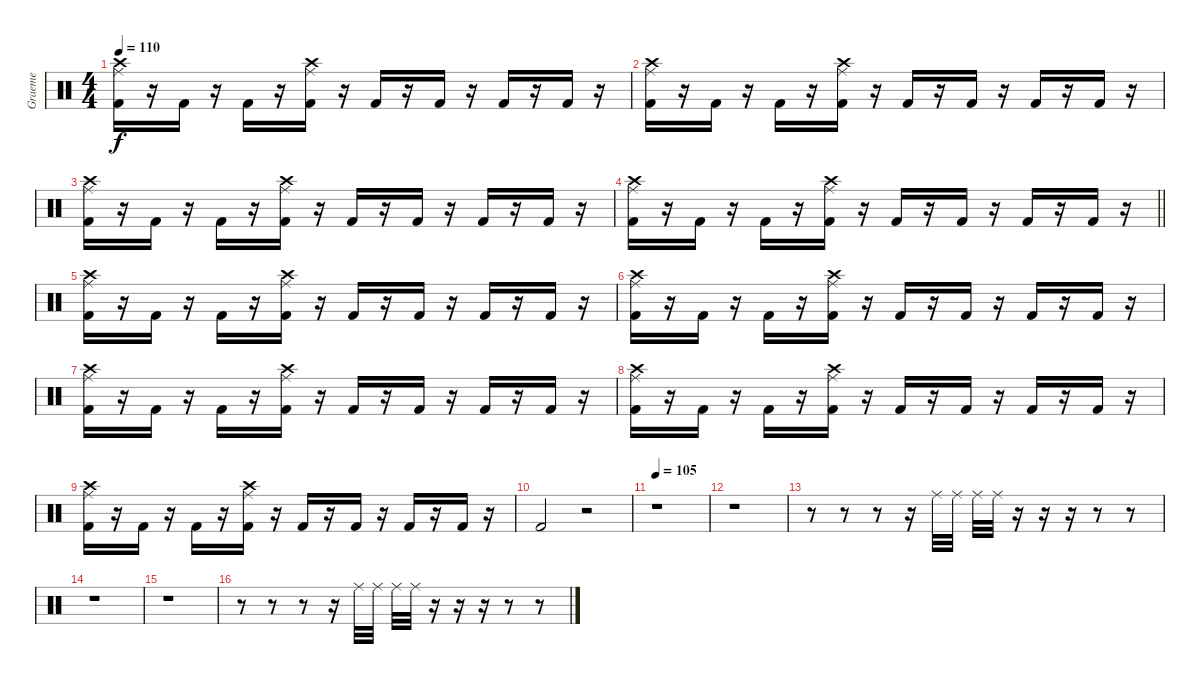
\track ("Graeme" "Graeme") {instrument percussion}
\staff {score}
\articulation defaults
\ts (4 4)
\tempo 110
\clef neutral
\ks c
("Ride (middle)" "Crash high (hit)" "Kick (hit) 2").16{dy f} r.16 "Kick (hit) 2".16 r.16 "Kick (hit) 2".16 r.16 ("Ride (middle)" "Crash high (hit)" "Kick (hit) 2").16 r.16 "Kick (hit) 2".16 r.16 "Kick (hit) 2".16 r.16 "Kick (hit) 2".16 r.16 "Kick (hit) 2".16 r.16 |
("Ride (middle)" "Crash high (hit)" "Kick (hit) 2").16 r.16 "Kick (hit) 2".16 r.16 "Kick (hit) 2".16 r.16 ("Ride (middle)" "Crash high (hit)" "Kick (hit) 2").16 r.16 "Kick (hit) 2".16 r.16 "Kick (hit) 2".16 r.16 "Kick (hit) 2".16 r.16 "Kick (hit) 2".16 r.16 |
("Ride (middle)" "Crash high (hit)" "Kick (hit) 2").16 r.16 "Kick (hit) 2".16 r.16 "Kick (hit) 2".16 r.16 ("Ride (middle)" "Crash high (hit)" "Kick (hit) 2").16 r.16 "Kick (hit) 2".16 r.16 "Kick (hit) 2".16 r.16 "Kick (hit) 2".16 r.16 "Kick (hit) 2".16 r.16 |
\barLineRight lightlight
("Ride (middle)" "Crash high (hit)" "Kick (hit) 2").16 r.16 "Kick (hit) 2".16 r.16 "Kick (hit) 2".16 r.16 ("Ride (middle)" "Crash high (hit)" "Kick (hit) 2").16 r.16 "Kick (hit) 2".16 r.16 "Kick (hit) 2".16 r.16 "Kick (hit) 2".16 r.16 "Kick (hit) 2".16 r.16 |
("Ride (middle)" "Crash high (hit)" "Kick (hit) 2").16 r.16 "Kick (hit) 2".16 r.16 "Kick (hit) 2".16 r.16 ("Ride (middle)" "Crash high (hit)" "Kick (hit) 2").16 r.16 "Kick (hit) 2".16 r.16 "Kick (hit) 2".16 r.16 "Kick (hit) 2".16 r.16 "Kick (hit) 2".16 r.16 |
("Ride (middle)" "Crash high (hit)" "Kick (hit) 2").16 r.16 "Kick (hit) 2".16 r.16 "Kick (hit) 2".16 r.16 ("Ride (middle)" "Crash high (hit)" "Kick (hit) 2").16 r.16 "Kick (hit) 2".16 r.16 "Kick (hit) 2".16 r.16 "Kick (hit) 2".16 r.16 "Kick (hit) 2".16 r.16 |
("Ride (middle)" "Crash high (hit)" "Kick (hit) 2").16 r.16 "Kick (hit) 2".16 r.16 "Kick (hit) 2".16 r.16 ("Ride (middle)" "Crash high (hit)" "Kick (hit) 2").16 r.16 "Kick (hit) 2".16 r.16 "Kick (hit) 2".16 r.16 "Kick (hit) 2".16 r.16 "Kick (hit) 2".16 r.16 |
("Ride (middle)" "Crash high (hit)" "Kick (hit) 2").16 r.16 "Kick (hit) 2".16 r.16 "Kick (hit) 2".16 r.16 ("Ride (middle)" "Crash high (hit)" "Kick (hit) 2").16 r.16 "Kick (hit) 2".16 r.16 "Kick (hit) 2".16 r.16 "Kick (hit) 2".16 r.16 "Kick (hit) 2".16 r.16 |
("Ride (middle)" "Crash high (hit)" "Kick (hit) 2").16 r.16 "Kick (hit) 2".16 r.16 "Kick (hit) 2".16 r.16 ("Ride (middle)" "Crash high (hit)" "Kick (hit) 2").16 r.16 "Kick (hit) 2".16 r.16 "Kick (hit) 2".16 r.16 "Kick (hit) 2".16 r.16 "Kick (hit) 2".16 r.16 |
"Kick (hit) 2".2 r.2 |
\tempo 105
r.1 |
r.1 |
r.8 r.8 r.8 r.16 "Ride (middle)".32 "Ride (middle)".32 "Ride (middle)".32 "Ride (middle)".32 r.16 r.16 r.16 r.8 r.8 |
r.1 |
r.1 |
r.8 r.8 r.8 r.16 "Ride (middle)".32 "Ride (middle)".32 "Ride (middle)".32 "Ride (middle)".32 r.16 r.16 r.16 r.8 r.8
